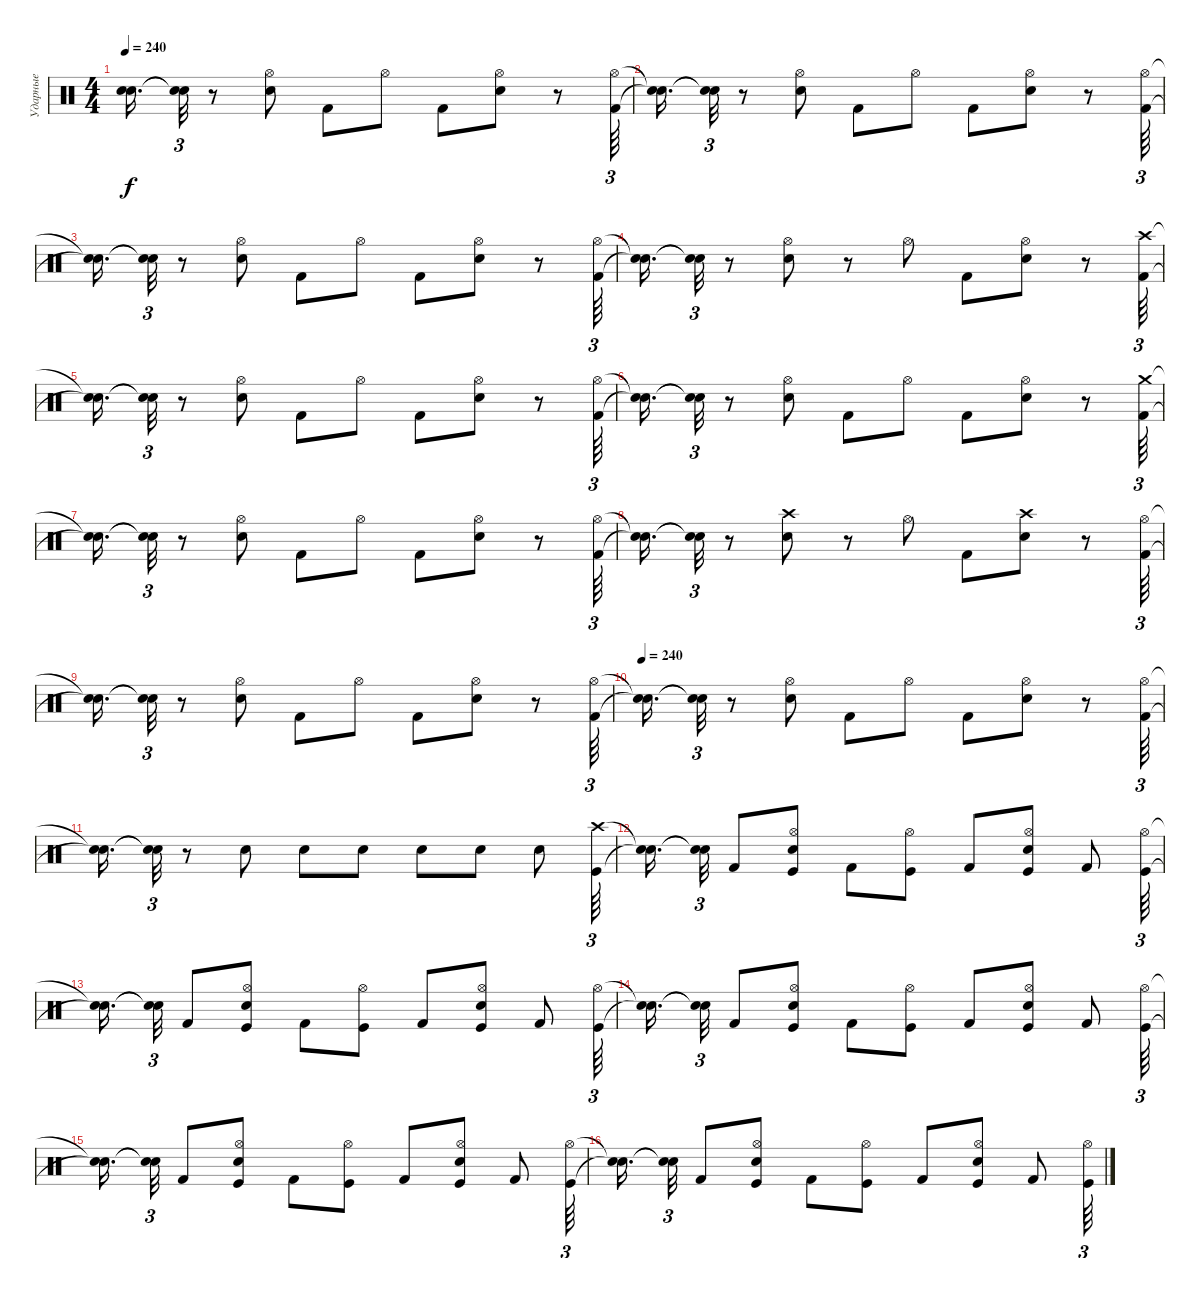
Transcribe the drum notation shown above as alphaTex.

\track ("Ударные" "Ударные") {instrument percussion}
\staff {score}
\articulation defaults
\ts (4 4)
\tempo 240
\clef neutral
\ks c
("Snare (hit)"{t} "Snare (hit)"{t}).16{d dy f} ("Snare (hit)"{t} "Snare (hit)"{t}).32{tu (3 2)} r.8 ("Snare (hit) 2" "Hi-Hat (open)").8 "Kick (hit) 2".8 "Hi-Hat (open)".8 "Kick (hit) 2".8 ("Hi-Hat (open)" "Snare (hit) 2").8 r.8 ("Hi-Hat (open)" "Kick (hit) 2").64{tu (3 2)} |
("Snare (hit)"{t} "Snare (hit)"{t}).16{d} ("Snare (hit)"{t} "Snare (hit)"{t}).32{tu (3 2)} r.8 ("Snare (hit) 2" "Hi-Hat (open)").8 "Kick (hit) 2".8 "Hi-Hat (open)".8 "Kick (hit) 2".8 ("Snare (hit) 2" "Hi-Hat (open)").8 r.8 ("Kick (hit) 2" "Hi-Hat (open)").64{tu (3 2)} |
("Snare (hit)"{t} "Snare (hit)"{t}).16{d} ("Snare (hit)"{t} "Snare (hit)"{t}).32{tu (3 2)} r.8 ("Snare (hit) 2" "Hi-Hat (open)").8 "Kick (hit) 2".8 "Hi-Hat (open)".8 "Kick (hit) 2".8 ("Snare (hit) 2" "Hi-Hat (open)").8 r.8 ("Kick (hit) 2" "Hi-Hat (open)").64{tu (3 2)} |
("Snare (hit)"{t} "Snare (hit)"{t}).16{d} ("Snare (hit)"{t} "Snare (hit)"{t}).32{tu (3 2)} r.8 ("Snare (hit) 2" "Hi-Hat (open)").8 r.8 "Hi-Hat (open)".8 "Kick (hit) 2".8 ("Snare (hit) 2" "Hi-Hat (open)").8 r.8 ("Kick (hit) 2" "Crash high (hit)").64{tu (3 2)} |
("Snare (hit)"{t} "Snare (hit)"{t}).16{d} ("Snare (hit)"{t} "Snare (hit)"{t}).32{tu (3 2)} r.8 ("Hi-Hat (open)" "Snare (hit) 2").8 "Kick (hit) 2".8 "Hi-Hat (open)".8 "Kick (hit) 2".8 ("Snare (hit) 2" "Hi-Hat (open)").8 r.8 ("Hi-Hat (open)" "Kick (hit) 2").64{tu (3 2)} |
("Snare (hit)"{t} "Snare (hit)"{t}).16{d} ("Snare (hit)"{t} "Snare (hit)"{t}).32{tu (3 2)} r.8 ("Snare (hit) 2" "Hi-Hat (open)").8 "Kick (hit) 2".8 "Hi-Hat (open)".8 "Kick (hit) 2".8 ("Hi-Hat (open)" "Snare (hit) 2").8 r.8 ("Kick (hit) 2" "Crash medium (hit)").64{tu (3 2)} |
("Snare (hit)"{t} "Snare (hit)"{t}).16{d} ("Snare (hit)"{t} "Snare (hit)"{t}).32{tu (3 2)} r.8 ("Snare (hit) 2" "Hi-Hat (open)").8 "Kick (hit) 2".8 "Hi-Hat (open)".8 "Kick (hit) 2".8 ("Hi-Hat (open)" "Snare (hit) 2").8 r.8 ("Hi-Hat (open)" "Kick (hit) 2").64{tu (3 2)} |
("Snare (hit)"{t} "Snare (hit)"{t}).16{d} ("Snare (hit)"{t} "Snare (hit)"{t}).32{tu (3 2)} r.8 ("Crash high (hit)" "Snare (hit) 2").8 r.8 "Hi-Hat (open)".8 "Kick (hit) 2".8 ("Crash high (hit)" "Snare (hit) 2").8 r.8 ("Kick (hit) 2" "Hi-Hat (open)").64{tu (3 2)} |
("Snare (hit)"{t} "Snare (hit)"{t}).16{d} ("Snare (hit)"{t} "Snare (hit)"{t}).32{tu (3 2)} r.8 ("Snare (hit) 2" "Hi-Hat (open)").8 "Kick (hit) 2".8 "Hi-Hat (open)".8 "Kick (hit) 2".8 ("Hi-Hat (open)" "Snare (hit) 2").8 r.8 ("Kick (hit) 2" "Hi-Hat (open)").64{tu (3 2)} |
\tempo 240
("Snare (hit)"{t} "Snare (hit)"{t}).16{d} ("Snare (hit)"{t} "Snare (hit)"{t}).32{tu (3 2)} r.8 ("Snare (hit) 2" "Hi-Hat (open)").8 "Kick (hit) 2".8 "Hi-Hat (open)".8 "Kick (hit) 2".8 ("Hi-Hat (open)" "Snare (hit) 2").8 r.8 ("Hi-Hat (open)" "Kick (hit) 2").64{tu (3 2)} |
("Snare (hit)"{t} "Snare (hit)"{t}).16{d} ("Snare (hit)"{t} "Snare (hit)"{t}).32{tu (3 2)} r.8 "Snare (hit) 2".8 "Snare (hit) 2".8 "Snare (hit) 2".8 "Snare (hit) 2".8 "Snare (hit) 2".8 "Snare (hit) 2".8 ("Crash high (hit)" "Kick (hit)").64{tu (3 2)} |
("Snare (hit)"{t} "Snare (hit)"{t}).16{d} ("Snare (hit)"{t} "Snare (hit)"{t}).32{tu (3 2)} "Kick (hit) 2".8 ("Hi-Hat (open)" "Snare (hit) 2" "Kick (hit)").8 "Kick (hit) 2".8 ("Hi-Hat (open)" "Kick (hit)").8 "Kick (hit) 2".8 ("Kick (hit)" "Hi-Hat (open)" "Snare (hit) 2").8 "Kick (hit) 2".8 ("Kick (hit)" "Hi-Hat (open)").64{tu (3 2)} |
("Snare (hit)"{t} "Snare (hit)"{t}).16{d} ("Snare (hit)"{t} "Snare (hit)"{t}).32{tu (3 2)} "Kick (hit) 2".8 ("Snare (hit) 2" "Kick (hit)" "Hi-Hat (open)").8 "Kick (hit) 2".8 ("Kick (hit)" "Hi-Hat (open)").8 "Kick (hit) 2".8 ("Hi-Hat (open)" "Kick (hit)" "Snare (hit) 2").8 "Kick (hit) 2".8 ("Kick (hit)" "Hi-Hat (open)").64{tu (3 2)} |
("Snare (hit)"{t} "Snare (hit)"{t}).16{d} ("Snare (hit)"{t} "Snare (hit)"{t}).32{tu (3 2)} "Kick (hit) 2".8 ("Snare (hit) 2" "Kick (hit)" "Hi-Hat (open)").8 "Kick (hit) 2".8 ("Kick (hit)" "Hi-Hat (open)").8 "Kick (hit) 2".8 ("Snare (hit) 2" "Kick (hit)" "Hi-Hat (open)").8 "Kick (hit) 2".8 ("Kick (hit)" "Hi-Hat (open)").64{tu (3 2)} |
("Snare (hit)"{t} "Snare (hit)"{t}).16{d} ("Snare (hit)"{t} "Snare (hit)"{t}).32{tu (3 2)} "Kick (hit) 2".8 ("Snare (hit) 2" "Kick (hit)" "Hi-Hat (open)").8 "Kick (hit) 2".8 ("Hi-Hat (open)" "Kick (hit)").8 "Kick (hit) 2".8 ("Snare (hit) 2" "Kick (hit)" "Hi-Hat (open)").8 "Kick (hit) 2".8 ("Kick (hit)" "Hi-Hat (open)").64{tu (3 2)} |
("Snare (hit)"{t} "Snare (hit)"{t}).16{d} ("Snare (hit)"{t} "Snare (hit)"{t}).32{tu (3 2)} "Kick (hit) 2".8 ("Kick (hit)" "Snare (hit) 2" "Hi-Hat (open)").8 "Kick (hit) 2".8 ("Hi-Hat (open)" "Kick (hit)").8 "Kick (hit) 2".8 ("Hi-Hat (open)" "Snare (hit) 2" "Kick (hit)").8 "Kick (hit) 2".8 ("Hi-Hat (open)" "Kick (hit)").64{tu (3 2)}
